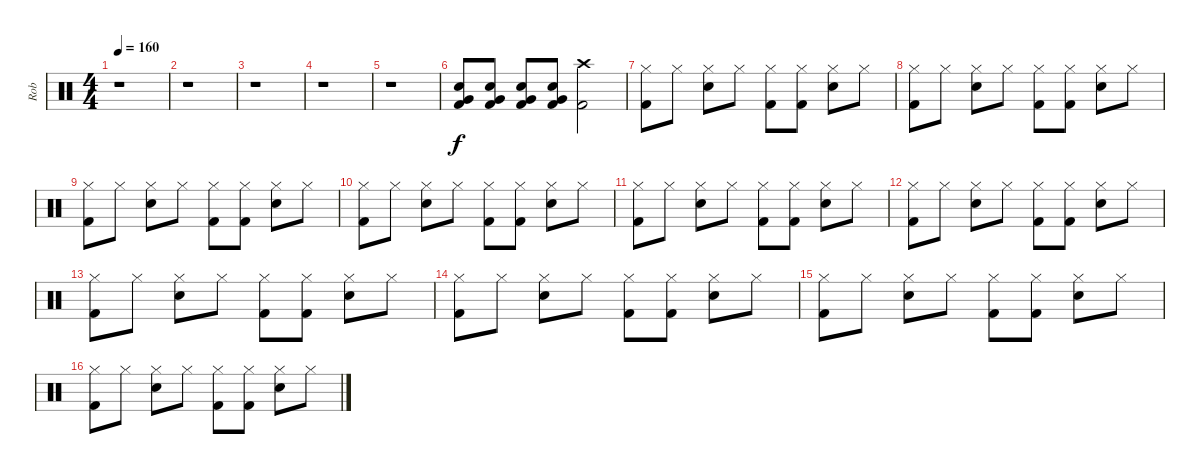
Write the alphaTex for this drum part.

\track ("Rob" "Rob") {instrument percussion}
\staff {score}
\articulation defaults
\ts (4 4)
\tempo 160
\clef neutral
\ks c
r.1{dy f} |
r.1 |
r.1 |
r.1 |
r.1 |
("Electric Snare (hit)" "Very Low Tom (hit)" "Kick (hit) 2").8 ("Electric Snare (hit)" "Very Low Tom (hit)" "Kick (hit) 2").8 ("Electric Snare (hit)" "Very Low Tom (hit)" "Kick (hit) 2").8 ("Electric Snare (hit)" "Very Low Tom (hit)" "Kick (hit) 2").8 ("Crash high (hit)" "Kick (hit) 2").2 |
("Hi-Hat (closed)" "Kick (hit) 2").8 "Hi-Hat (closed)".8 ("Hi-Hat (closed)" "Electric Snare (hit)").8 "Hi-Hat (closed)".8 ("Hi-Hat (closed)" "Kick (hit) 2").8 ("Hi-Hat (closed)" "Kick (hit) 2").8 ("Hi-Hat (closed)" "Electric Snare (hit)").8 "Hi-Hat (closed)".8 |
("Hi-Hat (closed)" "Kick (hit) 2").8 "Hi-Hat (closed)".8 ("Hi-Hat (closed)" "Electric Snare (hit)").8 "Hi-Hat (closed)".8 ("Hi-Hat (closed)" "Kick (hit) 2").8 ("Hi-Hat (closed)" "Kick (hit) 2").8 ("Hi-Hat (closed)" "Electric Snare (hit)").8 "Hi-Hat (closed)".8 |
("Hi-Hat (closed)" "Kick (hit) 2").8 "Hi-Hat (closed)".8 ("Hi-Hat (closed)" "Electric Snare (hit)").8 "Hi-Hat (closed)".8 ("Hi-Hat (closed)" "Kick (hit) 2").8 ("Hi-Hat (closed)" "Kick (hit) 2").8 ("Hi-Hat (closed)" "Electric Snare (hit)").8 "Hi-Hat (closed)".8 |
("Hi-Hat (closed)" "Kick (hit) 2").8 "Hi-Hat (closed)".8 ("Hi-Hat (closed)" "Electric Snare (hit)").8 "Hi-Hat (closed)".8 ("Hi-Hat (closed)" "Kick (hit) 2").8 ("Hi-Hat (closed)" "Kick (hit) 2").8 ("Hi-Hat (closed)" "Electric Snare (hit)").8 "Hi-Hat (closed)".8 |
("Hi-Hat (closed)" "Kick (hit) 2").8 "Hi-Hat (closed)".8 ("Hi-Hat (closed)" "Electric Snare (hit)").8 "Hi-Hat (closed)".8 ("Hi-Hat (closed)" "Kick (hit) 2").8 ("Hi-Hat (closed)" "Kick (hit) 2").8 ("Hi-Hat (closed)" "Electric Snare (hit)").8 "Hi-Hat (closed)".8 |
("Hi-Hat (closed)" "Kick (hit) 2").8 "Hi-Hat (closed)".8 ("Hi-Hat (closed)" "Electric Snare (hit)").8 "Hi-Hat (closed)".8 ("Hi-Hat (closed)" "Kick (hit) 2").8 ("Hi-Hat (closed)" "Kick (hit) 2").8 ("Hi-Hat (closed)" "Electric Snare (hit)").8 "Hi-Hat (closed)".8 |
("Hi-Hat (closed)" "Kick (hit) 2").8 "Hi-Hat (closed)".8 ("Hi-Hat (closed)" "Electric Snare (hit)").8 "Hi-Hat (closed)".8 ("Hi-Hat (closed)" "Kick (hit) 2").8 ("Hi-Hat (closed)" "Kick (hit) 2").8 ("Hi-Hat (closed)" "Electric Snare (hit)").8 "Hi-Hat (closed)".8 |
("Hi-Hat (closed)" "Kick (hit) 2").8 "Hi-Hat (closed)".8 ("Hi-Hat (closed)" "Electric Snare (hit)").8 "Hi-Hat (closed)".8 ("Hi-Hat (closed)" "Kick (hit) 2").8 ("Hi-Hat (closed)" "Kick (hit) 2").8 ("Hi-Hat (closed)" "Electric Snare (hit)").8 "Hi-Hat (closed)".8 |
("Hi-Hat (closed)" "Kick (hit) 2").8 "Hi-Hat (closed)".8 ("Hi-Hat (closed)" "Electric Snare (hit)").8 "Hi-Hat (closed)".8 ("Hi-Hat (closed)" "Kick (hit) 2").8 ("Hi-Hat (closed)" "Kick (hit) 2").8 ("Hi-Hat (closed)" "Electric Snare (hit)").8 "Hi-Hat (closed)".8 |
("Hi-Hat (closed)" "Kick (hit) 2").8 "Hi-Hat (closed)".8 ("Hi-Hat (closed)" "Electric Snare (hit)").8 "Hi-Hat (closed)".8 ("Hi-Hat (closed)" "Kick (hit) 2").8 ("Hi-Hat (closed)" "Kick (hit) 2").8 ("Hi-Hat (closed)" "Electric Snare (hit)").8 "Hi-Hat (closed)".8
